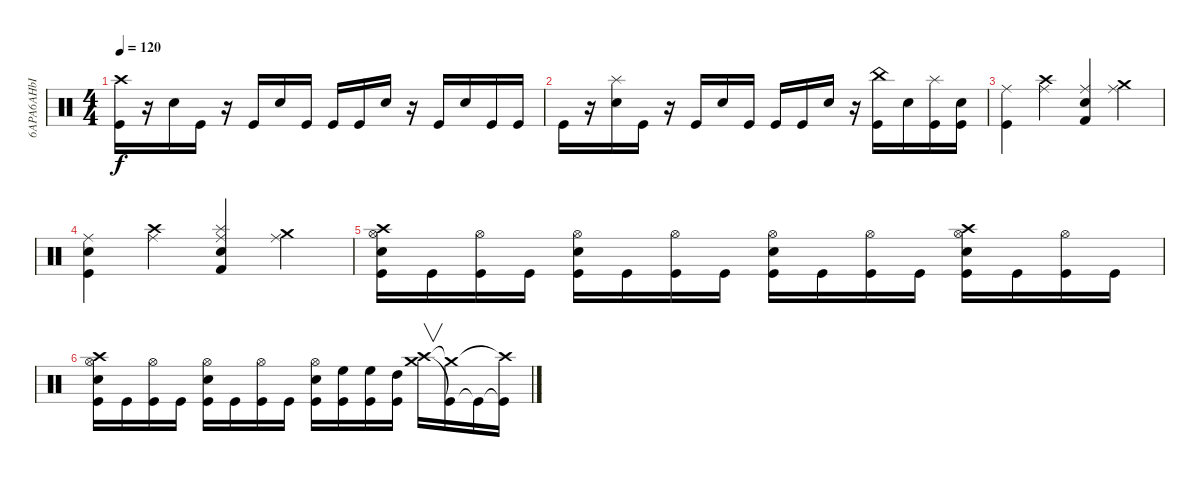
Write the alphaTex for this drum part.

\track ("6APA6AHbI" "6APA6AHbI") {instrument percussion}
\staff {score}
\articulation defaults
\ts (4 4)
\tempo 120
\clef neutral
\ks c
("Kick (hit)" "Crash high (hit)").16{dy f} r.16 "Electric Snare (hit)".16 "Kick (hit)".16 r.16 "Kick (hit)".16 "Electric Snare (hit)".16 "Kick (hit)".16 "Kick (hit)".16 "Kick (hit)".16 "Electric Snare (hit)".16 r.16 "Kick (hit)".16 "Electric Snare (hit)".16 "Kick (hit)".16 "Kick (hit)".16 |
"Kick (hit)".16 r.16 ("Electric Snare (hit)" "Splash (hit)").16 "Kick (hit)".16 r.16 "Kick (hit)".16 "Electric Snare (hit)".16 "Kick (hit)".16 "Kick (hit)".16 "Kick (hit)".16 "Electric Snare (hit)".16 r.16 ("Kick (hit)" "China (hit)").16 "Electric Snare (hit)".16 ("Kick (hit)" "Splash (hit)").16 ("Kick (hit)" "Electric Snare (hit)").16 |
("Ride (middle)" "Kick (hit)").4 ("Ride (middle)" "Crash high (hit)").4 ("Ride (middle)" "Kick (hit) 2" "Electric Snare (hit)").4 ("Ride (middle)" "Crash medium (hit)").4 |
("Ride (middle)" "Kick (hit)" "Electric Snare (hit)").4 ("Ride (middle)" "Crash high (hit)").4 ("Ride (middle)" "Kick (hit) 2" "Electric Snare (hit)" "Splash (hit)").4 ("Ride (middle)" "Crash medium (hit)").4 |
("Kick (hit)" "Electric Snare (hit)" "Hi-Hat (open)" "Crash high (hit)").16 "Kick (hit)".16 ("Kick (hit)" "Hi-Hat (open)").16 "Kick (hit)".16 ("Kick (hit)" "Electric Snare (hit)" "Hi-Hat (open)").16 "Kick (hit)".16 ("Kick (hit)" "Hi-Hat (open)").16 "Kick (hit)".16 ("Kick (hit)" "Electric Snare (hit)" "Hi-Hat (open)").16 "Kick (hit)".16 ("Kick (hit)" "Hi-Hat (open)").16 "Kick (hit)".16 ("Kick (hit)" "Electric Snare (hit)" "Hi-Hat (open)" "Crash high (hit)").16 "Kick (hit)".16 ("Kick (hit)" "Hi-Hat (open)").16 "Kick (hit)".16 |
("Kick (hit)" "Electric Snare (hit)" "Hi-Hat (open)" "Crash high (hit)").16 "Kick (hit)".16 ("Kick (hit)" "Hi-Hat (open)").16 "Kick (hit)".16 ("Kick (hit)" "Electric Snare (hit)" "Hi-Hat (open)").16 "Kick (hit)".16 ("Kick (hit)" "Hi-Hat (open)").16 "Kick (hit)".16 ("Kick (hit)" "Electric Snare (hit)" "Hi-Hat (open)").16 ("Kick (hit)" "High Floor Tom (hit)").16 ("Kick (hit)" "High Floor Tom (hit)").16 ("Kick (hit)" "High Tom (hit)").16 ("Crash medium (hit)" "Crash high (hit)").16{v} ("Kick (hit)"{t} "Crash medium (hit)"{t}).16 "Kick (hit)"{t}.16 ("Kick (hit)"{t} "Crash high (hit)"{t}).16
